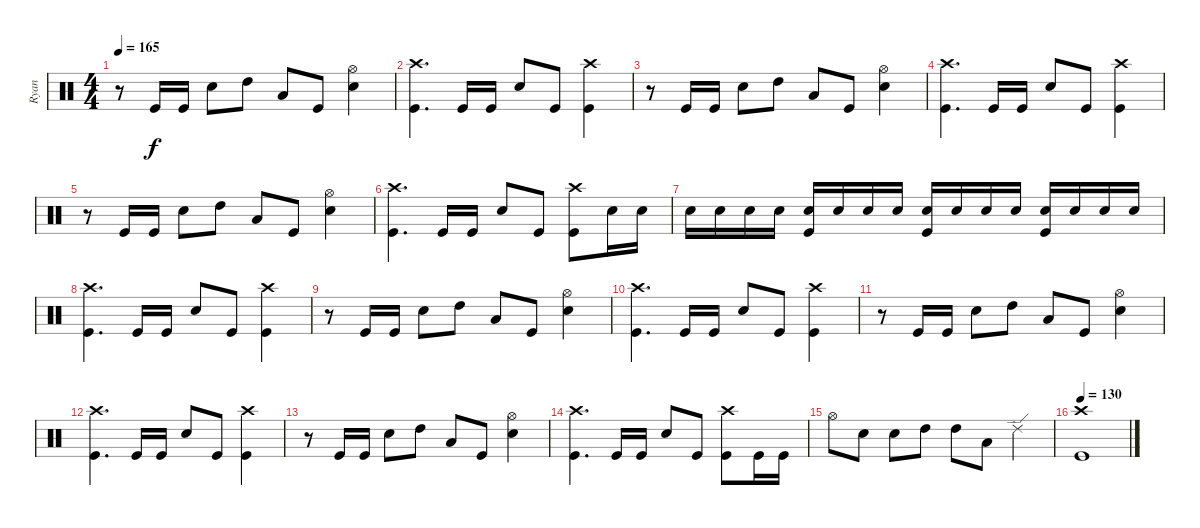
\track ("Ryan" "Ryan") {instrument percussion}
\staff {score}
\articulation defaults
\ts (4 4)
\tempo 165
\clef neutral
\ks c
r.8{dy f} "Kick (hit)".16 "Kick (hit)".16 "Electric Snare (hit)".8 "High Tom (hit)".8 "Low Floor Tom (hit)".8 "Kick (hit)".8 ("Hi-Hat (open)" "Electric Snare (hit)").4 |
("Crash high (hit)" "Kick (hit)").4{d} "Kick (hit)".16 "Kick (hit)".16 "Electric Snare (hit)".8 "Kick (hit)".8 ("Crash high (hit)" "Kick (hit)").4 |
r.8 "Kick (hit)".16 "Kick (hit)".16 "Electric Snare (hit)".8 "High Tom (hit)".8 "Low Floor Tom (hit)".8 "Kick (hit)".8 ("Hi-Hat (open)" "Electric Snare (hit)").4 |
("Crash high (hit)" "Kick (hit)").4{d} "Kick (hit)".16 "Kick (hit)".16 "Electric Snare (hit)".8 "Kick (hit)".8 ("Crash high (hit)" "Kick (hit)").4 |
r.8 "Kick (hit)".16 "Kick (hit)".16 "Electric Snare (hit)".8 "High Tom (hit)".8 "Low Floor Tom (hit)".8 "Kick (hit)".8 ("Hi-Hat (open)" "Electric Snare (hit)").4 |
("Crash high (hit)" "Kick (hit)").4{d} "Kick (hit)".16 "Kick (hit)".16 "Electric Snare (hit)".8 "Kick (hit)".8 ("Crash high (hit)" "Kick (hit)").8 "Electric Snare (hit)".16 "Electric Snare (hit)".16 |
"Electric Snare (hit)".16 "Electric Snare (hit)".16 "Electric Snare (hit)".16 "Electric Snare (hit)".16 ("Electric Snare (hit)" "Kick (hit)").16 "Electric Snare (hit)".16 "Electric Snare (hit)".16 "Electric Snare (hit)".16 ("Electric Snare (hit)" "Kick (hit)").16 "Electric Snare (hit)".16 "Electric Snare (hit)".16 "Electric Snare (hit)".16 ("Electric Snare (hit)" "Kick (hit)").16 "Electric Snare (hit)".16 "Electric Snare (hit)".16 "Electric Snare (hit)".16 |
("Crash high (hit)" "Kick (hit)").4{d} "Kick (hit)".16 "Kick (hit)".16 "Electric Snare (hit)".8 "Kick (hit)".8 ("Crash high (hit)" "Kick (hit)").4 |
r.8 "Kick (hit)".16 "Kick (hit)".16 "Electric Snare (hit)".8 "High Tom (hit)".8 "Low Floor Tom (hit)".8 "Kick (hit)".8 ("Hi-Hat (open)" "Electric Snare (hit)").4 |
("Crash high (hit)" "Kick (hit)").4{d} "Kick (hit)".16 "Kick (hit)".16 "Electric Snare (hit)".8 "Kick (hit)".8 ("Crash high (hit)" "Kick (hit)").4 |
r.8 "Kick (hit)".16 "Kick (hit)".16 "Electric Snare (hit)".8 "High Tom (hit)".8 "Low Floor Tom (hit)".8 "Kick (hit)".8 ("Hi-Hat (open)" "Electric Snare (hit)").4 |
("Crash high (hit)" "Kick (hit)").4{d} "Kick (hit)".16 "Kick (hit)".16 "Electric Snare (hit)".8 "Kick (hit)".8 ("Crash high (hit)" "Kick (hit)").4 |
r.8 "Kick (hit)".16 "Kick (hit)".16 "Electric Snare (hit)".8 "High Tom (hit)".8 "Low Floor Tom (hit)".8 "Kick (hit)".8 ("Hi-Hat (open)" "Electric Snare (hit)").4 |
("Crash high (hit)" "Kick (hit)").4{d} "Kick (hit)".16 "Kick (hit)".16 "Electric Snare (hit)".8 "Kick (hit)".8 ("Crash high (hit)" "Kick (hit)").8 "Kick (hit)".16 "Kick (hit)".16 |
"Hi-Hat (open)".8 "Electric Snare (hit)".8 "Electric Snare (hit)".8 "High Tom (hit)".8 "High Tom (hit)".8 "Low Floor Tom (hit)".8 "Ride (edge) 2".4 |
\tempo 130
("Crash high (hit)" "Kick (hit)").1
